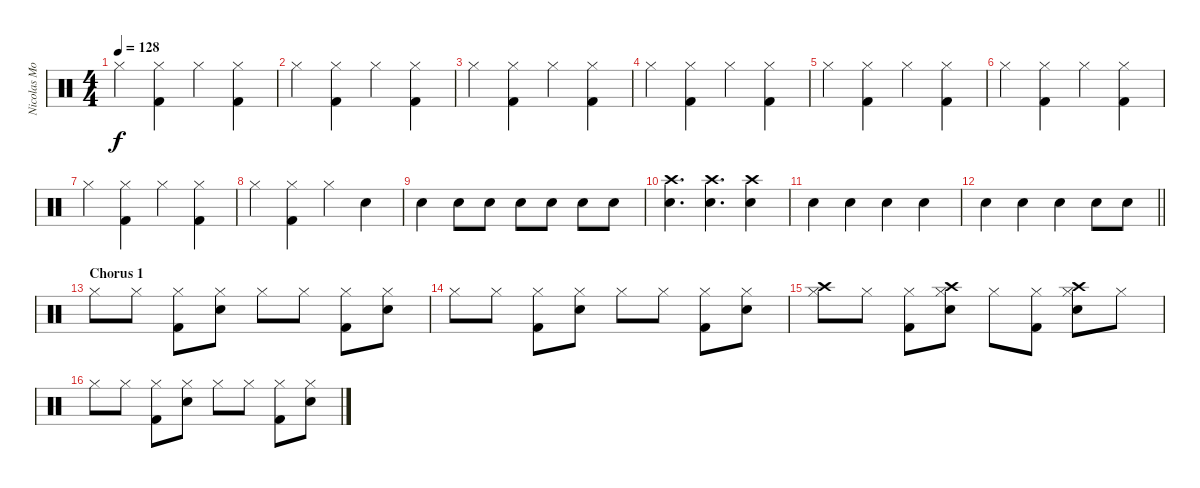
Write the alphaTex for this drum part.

\track ("Nicolas Mosquera" "Nicolas Mo") {mute instrument percussion}
\staff {score}
\articulation defaults
\ts (4 4)
\tempo 128
\clef neutral
\ks c "Hi-Hat (closed)".4{dy f}
("Hi-Hat (closed)" "Kick (hit) 2").4 "Hi-Hat (closed)".4 ("Hi-Hat (closed)" "Kick (hit) 2").4 |
"Hi-Hat (closed)".4 ("Hi-Hat (closed)" "Kick (hit) 2").4 "Hi-Hat (closed)".4 ("Hi-Hat (closed)" "Kick (hit) 2").4 |
"Hi-Hat (closed)".4 ("Hi-Hat (closed)" "Kick (hit) 2").4 "Hi-Hat (closed)".4 ("Hi-Hat (closed)" "Kick (hit) 2").4 |
"Hi-Hat (closed)".4 ("Hi-Hat (closed)" "Kick (hit) 2").4 "Hi-Hat (closed)".4 ("Hi-Hat (closed)" "Kick (hit) 2").4 |
"Hi-Hat (closed)".4 ("Hi-Hat (closed)" "Kick (hit) 2").4 "Hi-Hat (closed)".4 ("Hi-Hat (closed)" "Kick (hit) 2").4 |
"Hi-Hat (closed)".4 ("Hi-Hat (closed)" "Kick (hit) 2").4 "Hi-Hat (closed)".4 ("Hi-Hat (closed)" "Kick (hit) 2").4 |
"Hi-Hat (closed)".4 ("Hi-Hat (closed)" "Kick (hit) 2").4 "Hi-Hat (closed)".4 ("Hi-Hat (closed)" "Kick (hit) 2").4 |
"Hi-Hat (closed)".4 ("Hi-Hat (closed)" "Kick (hit) 2").4 "Hi-Hat (closed)".4 "Snare (hit) 2".4 |
"Snare (hit) 2".4 "Snare (hit) 2".8 "Snare (hit) 2".8 "Snare (hit) 2".8 "Snare (hit) 2".8 "Snare (hit) 2".8 "Snare (hit) 2".8 |
("Crash high (hit)" "Snare (hit) 2").4{d} ("Crash high (hit)" "Snare (hit) 2").4{d} ("Crash high (hit)" "Snare (hit) 2").4 |
"Snare (hit) 2".4 "Snare (hit) 2".4 "Snare (hit) 2".4 "Snare (hit) 2".4 |
\barLineRight lightlight "Snare (hit) 2".4 "Snare (hit) 2".4 "Snare (hit) 2".4 "Snare (hit) 2".8 "Snare (hit) 2".8
|
\section ("" "Chorus 1")
"Hi-Hat (closed)".8 "Hi-Hat (closed)".8 ("Hi-Hat (closed)" "Kick (hit) 2").8 ("Hi-Hat (closed)" "Snare (hit) 2").8 "Hi-Hat (closed)".8 "Hi-Hat (closed)".8 ("Hi-Hat (closed)" "Kick (hit) 2").8 ("Hi-Hat (closed)" "Snare (hit) 2").8 |
"Hi-Hat (closed)".8 "Hi-Hat (closed)".8 ("Hi-Hat (closed)" "Kick (hit) 2").8 ("Hi-Hat (closed)" "Snare (hit) 2").8 "Hi-Hat (closed)".8 "Hi-Hat (closed)".8 ("Hi-Hat (closed)" "Kick (hit) 2").8 ("Hi-Hat (closed)" "Snare (hit) 2").8 |
("Hi-Hat (closed)" "Crash high (hit)").8 "Hi-Hat (closed)".8 ("Hi-Hat (closed)" "Kick (hit) 2").8 ("Hi-Hat (closed)" "Snare (hit) 2" "Crash high (hit)").8 "Hi-Hat (closed)".8 ("Hi-Hat (closed)" "Kick (hit) 2").8 ("Hi-Hat (closed)" "Snare (hit) 2" "Crash high (hit)").8 "Hi-Hat (closed)".8 |
"Hi-Hat (closed)".8 "Hi-Hat (closed)".8 ("Hi-Hat (closed)" "Kick (hit) 2").8 ("Hi-Hat (closed)" "Snare (hit) 2").8 "Hi-Hat (closed)".8 "Hi-Hat (closed)".8 ("Hi-Hat (closed)" "Kick (hit) 2").8 ("Hi-Hat (closed)" "Snare (hit) 2").8
